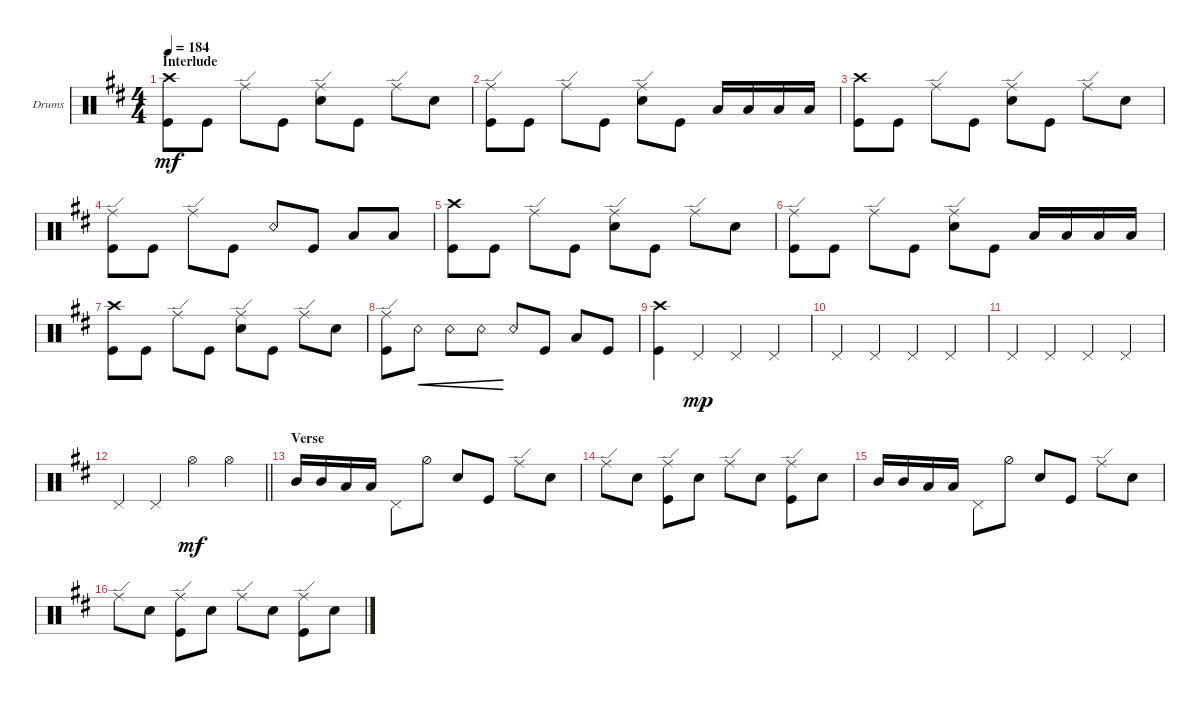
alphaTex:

\defaultSystemsLayout 4
\bracketExtendMode groupsimilarinstruments
\firstSystemTrackNameOrientation horizontal
\otherSystemsTrackNameOrientation horizontal
\track ("Drums" "Drums") {instrument percussion}
\staff {score}
\articulation defaults
\ts (4 4)
\section ("" "Interlude")
\tempo 184
\clef neutral
\ks d
("Kick (hit)" "Crash high (hit)").8{dy mf} "Kick (hit)".8 "Ride (edge)".8 "Kick (hit)".8 ("Ride (edge)" "Snare (hit) 2").8 "Kick (hit)".8 "Ride (edge)".8 "Snare (hit) 2".8 |
("Kick (hit)" "Ride (edge)").8 "Kick (hit)".8 "Ride (edge)".8 "Kick (hit)".8 ("Ride (edge)" "Snare (hit) 2").8 "Kick (hit)".8 "Low Tom (hit)".16 "Low Tom (hit)".16 "Low Tom (hit)".16 "Low Tom (hit)".16 |
("Kick (hit)" "Crash high (hit)").8 "Kick (hit)".8 "Ride (edge)".8 "Kick (hit)".8 ("Ride (edge)" "Snare (hit) 2").8 "Kick (hit)".8 "Ride (edge)".8 "Snare (hit) 2".8 |
("Kick (hit)" "Ride (edge)").8 "Kick (hit)".8 "Ride (edge)".8 "Kick (hit)".8 "Snare (rim shot)".8 "Kick (hit)".8 "Low Tom (hit)".8 "Low Tom (hit)".8 |
("Kick (hit)" "Crash high (hit)").8 "Kick (hit)".8 "Ride (edge)".8 "Kick (hit)".8 ("Ride (edge)" "Snare (hit) 2").8 "Kick (hit)".8 "Ride (edge)".8 "Snare (hit) 2".8 |
("Kick (hit)" "Ride (edge)").8 "Kick (hit)".8 "Ride (edge)".8 "Kick (hit)".8 ("Ride (edge)" "Snare (hit) 2").8 "Kick (hit)".8 "Low Tom (hit)".16 "Low Tom (hit)".16 "Low Tom (hit)".16 "Low Tom (hit)".16 |
("Kick (hit)" "Crash high (hit)").8 "Kick (hit)".8 "Ride (edge)".8 "Kick (hit)".8 ("Ride (edge)" "Snare (hit) 2").8 "Kick (hit)".8 "Ride (edge)".8 "Snare (hit) 2".8 |
("Kick (hit)" "Ride (edge)").8 "Snare (rim shot)".8{cre} "Snare (rim shot)".8{cre} "Snare (rim shot)".8{cre} "Snare (rim shot)".8 "Kick (hit)".8 "Low Tom (hit)".8 "Kick (hit)".8 |
("Kick (hit)" "Crash high (hit)").4 "Pedal Hi-Hat (hit)".4{dy mp} "Pedal Hi-Hat (hit)".4 "Pedal Hi-Hat (hit)".4 |
"Pedal Hi-Hat (hit)".4 "Pedal Hi-Hat (hit)".4 "Pedal Hi-Hat (hit)".4 "Pedal Hi-Hat (hit)".4 |
"Pedal Hi-Hat (hit)".4 "Pedal Hi-Hat (hit)".4 "Pedal Hi-Hat (hit)".4 "Pedal Hi-Hat (hit)".4 |
\barLineRight lightlight "Pedal Hi-Hat (hit)".4 "Pedal Hi-Hat (hit)".4 "Hi-Hat (open)".4{dy mf} "Hi-Hat (open)".4
|
\section ("" "Verse")
"Mid Tom (hit)".16 "Mid Tom (hit)".16 "Low Tom (hit)".16 "Low Tom (hit)".16 "Pedal Hi-Hat (hit)".8 "Hi-Hat (half)".8 "Snare (hit) 2".8 "Kick (hit)".8 "Ride (edge)".8 "Snare (hit) 2".8 |
"Ride (edge)".8 "Snare (hit) 2".8 ("Kick (hit)" "Ride (edge)").8 "Snare (hit) 2".8 "Ride (edge)".8 "Snare (hit) 2".8 ("Kick (hit)" "Ride (edge)").8 "Snare (hit) 2".8 |
"Mid Tom (hit)".16 "Mid Tom (hit)".16 "Low Tom (hit)".16 "Low Tom (hit)".16 "Pedal Hi-Hat (hit)".8 "Hi-Hat (half)".8 "Snare (hit) 2".8 "Kick (hit)".8 "Ride (edge)".8 "Snare (hit) 2".8 |
"Ride (edge)".8 "Snare (hit) 2".8 ("Kick (hit)" "Ride (edge)").8 "Snare (hit) 2".8 "Ride (edge)".8 "Snare (hit) 2".8 ("Kick (hit)" "Ride (edge)").8 "Snare (hit) 2".8
